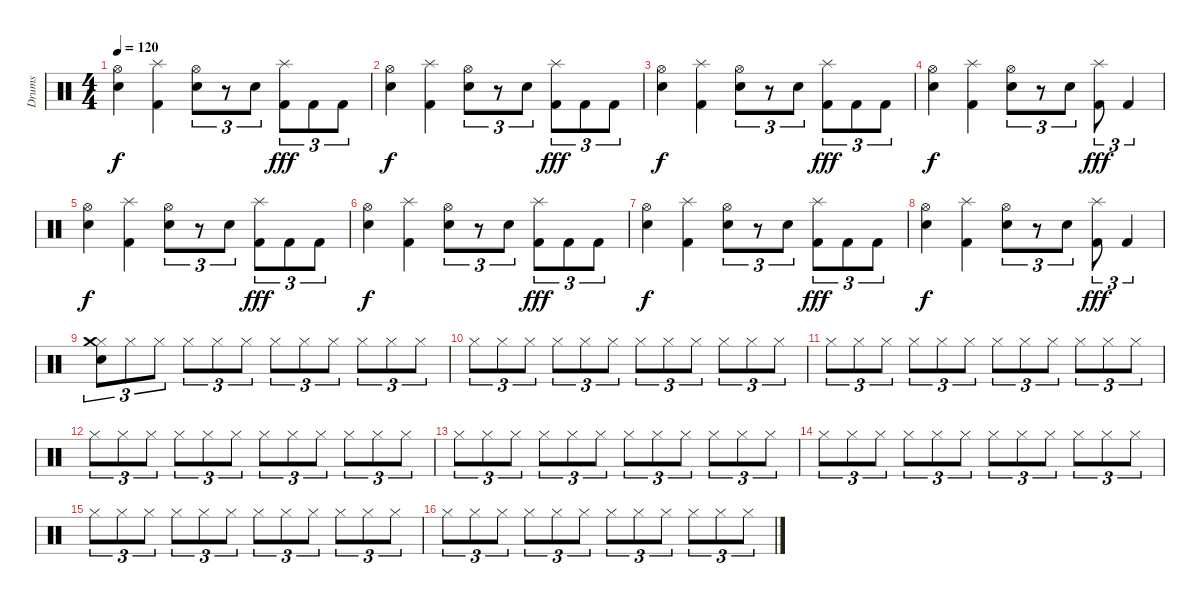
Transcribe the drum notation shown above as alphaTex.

\track ("Drums" "Drums") {instrument percussion}
\staff {score}
\articulation defaults
\ts (4 4)
\tempo 120
\clef neutral
\ks c
("Hi-Hat (open)" "Electric Snare (hit)").4{dy f} ("Splash (hit)" "Kick (hit) 2").4 ("Hi-Hat (open)" "Electric Snare (hit)").8{tu (3 2)} r.8{tu (3 2)} "Electric Snare (hit)".8{tu (3 2)} ("Splash (hit)" "Kick (hit) 2").8{tu (3 2) dy fff} "Kick (hit) 2".8{tu (3 2)} "Kick (hit) 2".8{tu (3 2)} |
("Hi-Hat (open)" "Electric Snare (hit)").4{dy f} ("Splash (hit)" "Kick (hit) 2").4 ("Hi-Hat (open)" "Electric Snare (hit)").8{tu (3 2)} r.8{tu (3 2)} "Electric Snare (hit)".8{tu (3 2)} ("Splash (hit)" "Kick (hit) 2").8{tu (3 2) dy fff} "Kick (hit) 2".8{tu (3 2)} "Kick (hit) 2".8{tu (3 2)} |
("Hi-Hat (open)" "Electric Snare (hit)").4{dy f} ("Splash (hit)" "Kick (hit) 2").4 ("Hi-Hat (open)" "Electric Snare (hit)").8{tu (3 2)} r.8{tu (3 2)} "Electric Snare (hit)".8{tu (3 2)} ("Splash (hit)" "Kick (hit) 2").8{tu (3 2) dy fff} "Kick (hit) 2".8{tu (3 2)} "Kick (hit) 2".8{tu (3 2)} |
("Hi-Hat (open)" "Electric Snare (hit)").4{dy f} ("Splash (hit)" "Kick (hit) 2").4 ("Hi-Hat (open)" "Electric Snare (hit)").8{tu (3 2)} r.8{tu (3 2)} "Electric Snare (hit)".8{tu (3 2)} ("Splash (hit)" "Kick (hit) 2").8{tu (3 2) dy fff} "Kick (hit) 2".4{tu (3 2)} |
("Hi-Hat (open)" "Electric Snare (hit)").4{dy f} ("Splash (hit)" "Kick (hit) 2").4 ("Hi-Hat (open)" "Electric Snare (hit)").8{tu (3 2)} r.8{tu (3 2)} "Electric Snare (hit)".8{tu (3 2)} ("Splash (hit)" "Kick (hit) 2").8{tu (3 2) dy fff} "Kick (hit) 2".8{tu (3 2)} "Kick (hit) 2".8{tu (3 2)} |
("Hi-Hat (open)" "Electric Snare (hit)").4{dy f} ("Splash (hit)" "Kick (hit) 2").4 ("Hi-Hat (open)" "Electric Snare (hit)").8{tu (3 2)} r.8{tu (3 2)} "Electric Snare (hit)".8{tu (3 2)} ("Splash (hit)" "Kick (hit) 2").8{tu (3 2) dy fff} "Kick (hit) 2".8{tu (3 2)} "Kick (hit) 2".8{tu (3 2)} |
("Hi-Hat (open)" "Electric Snare (hit)").4{dy f} ("Splash (hit)" "Kick (hit) 2").4 ("Hi-Hat (open)" "Electric Snare (hit)").8{tu (3 2)} r.8{tu (3 2)} "Electric Snare (hit)".8{tu (3 2)} ("Splash (hit)" "Kick (hit) 2").8{tu (3 2) dy fff} "Kick (hit) 2".8{tu (3 2)} "Kick (hit) 2".8{tu (3 2)} |
("Hi-Hat (open)" "Electric Snare (hit)").4{dy f} ("Splash (hit)" "Kick (hit) 2").4 ("Hi-Hat (open)" "Electric Snare (hit)").8{tu (3 2)} r.8{tu (3 2)} "Electric Snare (hit)".8{tu (3 2)} ("Splash (hit)" "Kick (hit) 2").8{tu (3 2) dy fff} "Kick (hit) 2".4{tu (3 2)} |
("Hi-Hat (closed)" "Electric Snare (hit)" "Crash medium (hit)").8{tu (3 2)} "Hi-Hat (closed)".8{tu (3 2)} "Hi-Hat (closed)".8{tu (3 2)} "Hi-Hat (closed)".8{tu (3 2)} "Hi-Hat (closed)".8{tu (3 2)} "Hi-Hat (closed)".8{tu (3 2)} "Hi-Hat (closed)".8{tu (3 2)} "Hi-Hat (closed)".8{tu (3 2)} "Hi-Hat (closed)".8{tu (3 2)} "Hi-Hat (closed)".8{tu (3 2)} "Hi-Hat (closed)".8{tu (3 2)} "Hi-Hat (closed)".8{tu (3 2)} |
"Hi-Hat (closed)".8{tu (3 2)} "Hi-Hat (closed)".8{tu (3 2)} "Hi-Hat (closed)".8{tu (3 2)} "Hi-Hat (closed)".8{tu (3 2)} "Hi-Hat (closed)".8{tu (3 2)} "Hi-Hat (closed)".8{tu (3 2)} "Hi-Hat (closed)".8{tu (3 2)} "Hi-Hat (closed)".8{tu (3 2)} "Hi-Hat (closed)".8{tu (3 2)} "Hi-Hat (closed)".8{tu (3 2)} "Hi-Hat (closed)".8{tu (3 2)} "Hi-Hat (closed)".8{tu (3 2)} |
"Hi-Hat (closed)".8{tu (3 2)} "Hi-Hat (closed)".8{tu (3 2)} "Hi-Hat (closed)".8{tu (3 2)} "Hi-Hat (closed)".8{tu (3 2)} "Hi-Hat (closed)".8{tu (3 2)} "Hi-Hat (closed)".8{tu (3 2)} "Hi-Hat (closed)".8{tu (3 2)} "Hi-Hat (closed)".8{tu (3 2)} "Hi-Hat (closed)".8{tu (3 2)} "Hi-Hat (closed)".8{tu (3 2)} "Hi-Hat (closed)".8{tu (3 2)} "Hi-Hat (closed)".8{tu (3 2)} |
"Hi-Hat (closed)".8{tu (3 2)} "Hi-Hat (closed)".8{tu (3 2)} "Hi-Hat (closed)".8{tu (3 2)} "Hi-Hat (closed)".8{tu (3 2)} "Hi-Hat (closed)".8{tu (3 2)} "Hi-Hat (closed)".8{tu (3 2)} "Hi-Hat (closed)".8{tu (3 2)} "Hi-Hat (closed)".8{tu (3 2)} "Hi-Hat (closed)".8{tu (3 2)} "Hi-Hat (closed)".8{tu (3 2)} "Hi-Hat (closed)".8{tu (3 2)} "Hi-Hat (closed)".8{tu (3 2)} |
"Hi-Hat (closed)".8{tu (3 2)} "Hi-Hat (closed)".8{tu (3 2)} "Hi-Hat (closed)".8{tu (3 2)} "Hi-Hat (closed)".8{tu (3 2)} "Hi-Hat (closed)".8{tu (3 2)} "Hi-Hat (closed)".8{tu (3 2)} "Hi-Hat (closed)".8{tu (3 2)} "Hi-Hat (closed)".8{tu (3 2)} "Hi-Hat (closed)".8{tu (3 2)} "Hi-Hat (closed)".8{tu (3 2)} "Hi-Hat (closed)".8{tu (3 2)} "Hi-Hat (closed)".8{tu (3 2)} |
"Hi-Hat (closed)".8{tu (3 2)} "Hi-Hat (closed)".8{tu (3 2)} "Hi-Hat (closed)".8{tu (3 2)} "Hi-Hat (closed)".8{tu (3 2)} "Hi-Hat (closed)".8{tu (3 2)} "Hi-Hat (closed)".8{tu (3 2)} "Hi-Hat (closed)".8{tu (3 2)} "Hi-Hat (closed)".8{tu (3 2)} "Hi-Hat (closed)".8{tu (3 2)} "Hi-Hat (closed)".8{tu (3 2)} "Hi-Hat (closed)".8{tu (3 2)} "Hi-Hat (closed)".8{tu (3 2)} |
"Hi-Hat (closed)".8{tu (3 2)} "Hi-Hat (closed)".8{tu (3 2)} "Hi-Hat (closed)".8{tu (3 2)} "Hi-Hat (closed)".8{tu (3 2)} "Hi-Hat (closed)".8{tu (3 2)} "Hi-Hat (closed)".8{tu (3 2)} "Hi-Hat (closed)".8{tu (3 2)} "Hi-Hat (closed)".8{tu (3 2)} "Hi-Hat (closed)".8{tu (3 2)} "Hi-Hat (closed)".8{tu (3 2)} "Hi-Hat (closed)".8{tu (3 2)} "Hi-Hat (closed)".8{tu (3 2)} |
"Hi-Hat (closed)".8{tu (3 2)} "Hi-Hat (closed)".8{tu (3 2)} "Hi-Hat (closed)".8{tu (3 2)} "Hi-Hat (closed)".8{tu (3 2)} "Hi-Hat (closed)".8{tu (3 2)} "Hi-Hat (closed)".8{tu (3 2)} "Hi-Hat (closed)".8{tu (3 2)} "Hi-Hat (closed)".8{tu (3 2)} "Hi-Hat (closed)".8{tu (3 2)} "Hi-Hat (closed)".8{tu (3 2)} "Hi-Hat (closed)".8{tu (3 2)} "Hi-Hat (closed)".8{tu (3 2)}
